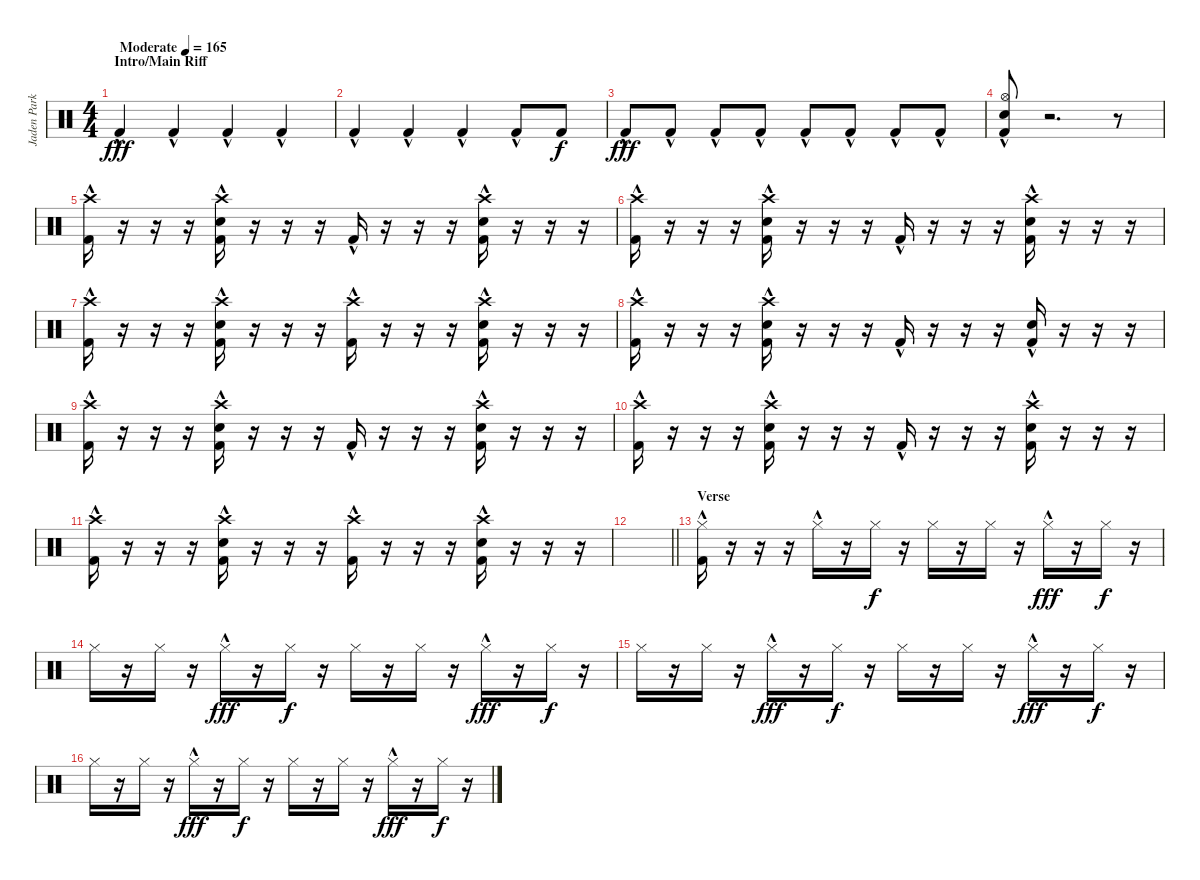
\track ("Jaden Parkes" "Jaden Park") {instrument percussion}
\staff {score}
\articulation defaults
\ts (4 4)
\section ("" "Intro/Main Riff")
\tempo (165 "Moderate")
\clef neutral
\ks c "Kick (hit) 2"{hac}.4{dy fff} "Kick (hit) 2"{hac}.4 "Kick (hit) 2"{hac}.4 "Kick (hit) 2"{hac}.4
|
"Kick (hit) 2"{hac}.4 "Kick (hit) 2"{hac}.4 "Kick (hit) 2"{hac}.4 "Kick (hit) 2"{hac}.8 "Kick (hit) 2".8{dy f} |
"Kick (hit) 2"{hac}.8{dy fff} "Kick (hit) 2"{hac}.8 "Kick (hit) 2"{hac}.8 "Kick (hit) 2"{hac}.8 "Kick (hit) 2"{hac}.8 "Kick (hit) 2"{hac}.8 "Kick (hit) 2"{hac}.8 "Kick (hit) 2"{hac}.8 |
("Hi-Hat (open)"{hac} "Electric Snare (hit)"{hac} "Kick (hit) 2"{hac}).8{volume 16} r.2{d} r.8 |
("Crash high (hit)" "Kick (hit) 2"{hac}).16 r.16 r.16 r.16 ("Crash high (hit)"{hac} "Electric Snare (hit)" "Kick (hit) 2"{hac}).16 r.16 r.16 r.16 "Kick (hit) 2"{hac}.16 r.16 r.16 r.16 ("Crash high (hit)"{hac} "Electric Snare (hit)" "Kick (hit) 2"{hac}).16 r.16 r.16 r.16 |
("Crash high (hit)" "Kick (hit) 2"{hac}).16 r.16 r.16 r.16 ("Crash high (hit)"{hac} "Electric Snare (hit)" "Kick (hit) 2"{hac}).16 r.16 r.16 r.16 "Kick (hit) 2"{hac}.16 r.16 r.16 r.16 ("Crash high (hit)"{hac} "Electric Snare (hit)" "Kick (hit) 2"{hac}).16 r.16 r.16 r.16 |
("Crash high (hit)" "Kick (hit) 2"{hac}).16 r.16 r.16 r.16 ("Crash high (hit)"{hac} "Electric Snare (hit)" "Kick (hit) 2"{hac}).16 r.16 r.16 r.16 ("Crash high (hit)" "Kick (hit) 2"{hac}).16 r.16 r.16 r.16 ("Crash high (hit)"{hac} "Electric Snare (hit)" "Kick (hit) 2"{hac}).16 r.16 r.16 r.16 |
("Crash high (hit)" "Kick (hit) 2"{hac}).16 r.16 r.16 r.16 ("Crash high (hit)"{hac} "Electric Snare (hit)" "Kick (hit) 2"{hac}).16 r.16 r.16 r.16 "Kick (hit) 2"{hac}.16 r.16 r.16 r.16 ("Electric Snare (hit)" "Kick (hit) 2"{hac}).16 r.16 r.16 r.16 |
("Crash high (hit)" "Kick (hit) 2"{hac}).16 r.16 r.16 r.16 ("Crash high (hit)"{hac} "Electric Snare (hit)" "Kick (hit) 2"{hac}).16 r.16 r.16 r.16 "Kick (hit) 2"{hac}.16 r.16 r.16 r.16 ("Crash high (hit)"{hac} "Electric Snare (hit)" "Kick (hit) 2"{hac}).16 r.16 r.16 r.16 |
("Crash high (hit)" "Kick (hit) 2"{hac}).16 r.16 r.16 r.16 ("Crash high (hit)"{hac} "Electric Snare (hit)" "Kick (hit) 2"{hac}).16 r.16 r.16 r.16 "Kick (hit) 2"{hac}.16 r.16 r.16 r.16 ("Crash high (hit)"{hac} "Electric Snare (hit)" "Kick (hit) 2"{hac}).16 r.16 r.16 r.16 |
("Crash high (hit)" "Kick (hit) 2"{hac}).16 r.16 r.16 r.16 ("Crash high (hit)"{hac} "Electric Snare (hit)" "Kick (hit) 2"{hac}).16 r.16 r.16 r.16 ("Crash high (hit)" "Kick (hit) 2"{hac}).16 r.16 r.16 r.16 ("Crash high (hit)"{hac} "Electric Snare (hit)" "Kick (hit) 2"{hac}).16 r.16 r.16 r.16 |
\barLineRight lightlight
|
\section ("" "Verse")
("Hi-Hat (closed)" "Kick (hit) 2"{hac}).16{volume 8} r.16 r.16 r.16 "Hi-Hat (closed)"{hac}.16 r.16 "Hi-Hat (closed)".16{dy f} r.16 "Hi-Hat (closed)".16 r.16 "Hi-Hat (closed)".16 r.16 "Hi-Hat (closed)"{hac}.16{dy fff} r.16 "Hi-Hat (closed)".16{dy f} r.16 |
"Hi-Hat (closed)".16 r.16 "Hi-Hat (closed)".16 r.16 "Hi-Hat (closed)"{hac}.16{dy fff} r.16 "Hi-Hat (closed)".16{dy f} r.16 "Hi-Hat (closed)".16 r.16 "Hi-Hat (closed)".16 r.16 "Hi-Hat (closed)"{hac}.16{dy fff} r.16 "Hi-Hat (closed)".16{dy f} r.16 |
"Hi-Hat (closed)".16 r.16 "Hi-Hat (closed)".16 r.16 "Hi-Hat (closed)"{hac}.16{dy fff} r.16 "Hi-Hat (closed)".16{dy f} r.16 "Hi-Hat (closed)".16 r.16 "Hi-Hat (closed)".16 r.16 "Hi-Hat (closed)"{hac}.16{dy fff} r.16 "Hi-Hat (closed)".16{dy f} r.16 |
"Hi-Hat (closed)".16 r.16 "Hi-Hat (closed)".16 r.16 "Hi-Hat (closed)"{hac}.16{dy fff} r.16 "Hi-Hat (closed)".16{dy f} r.16 "Hi-Hat (closed)".16 r.16 "Hi-Hat (closed)".16 r.16 "Hi-Hat (closed)"{hac}.16{dy fff} r.16 "Hi-Hat (closed)".16{dy f} r.16
